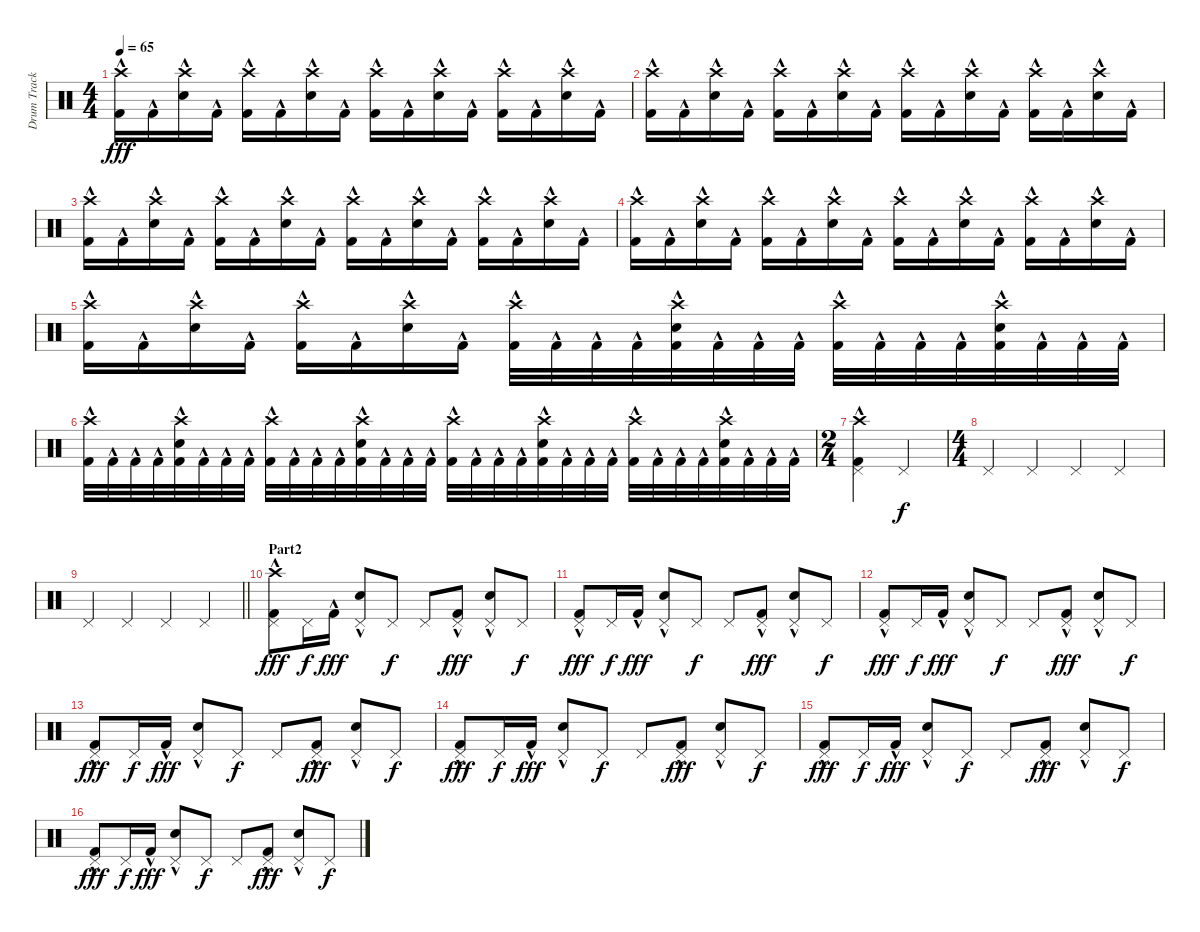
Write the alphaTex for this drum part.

\track ("Drum Track" "Drum Track") {instrument percussion}
\staff {score}
\articulation defaults
\ts (4 4)
\tempo 65
\clef neutral
\ks c
("Crash high (hit)" "Kick (hit) 2"{hac}).16{dy fff} "Kick (hit) 2"{hac}.16 ("Crash high (hit)" "Electric Snare (hit)"{hac}).16 "Kick (hit) 2"{hac}.16 ("Crash high (hit)" "Kick (hit) 2"{hac}).16 "Kick (hit) 2"{hac}.16 ("Crash high (hit)" "Electric Snare (hit)"{hac}).16 "Kick (hit) 2"{hac}.16 ("Crash high (hit)" "Kick (hit) 2"{hac}).16 "Kick (hit) 2"{hac}.16 ("Crash high (hit)" "Electric Snare (hit)"{hac}).16 "Kick (hit) 2"{hac}.16 ("Crash high (hit)" "Kick (hit) 2"{hac}).16 "Kick (hit) 2"{hac}.16 ("Crash high (hit)" "Electric Snare (hit)"{hac}).16 "Kick (hit) 2"{hac}.16 |
("Crash high (hit)" "Kick (hit) 2"{hac}).16 "Kick (hit) 2"{hac}.16 ("Crash high (hit)" "Electric Snare (hit)"{hac}).16 "Kick (hit) 2"{hac}.16 ("Crash high (hit)" "Kick (hit) 2"{hac}).16 "Kick (hit) 2"{hac}.16 ("Crash high (hit)" "Electric Snare (hit)"{hac}).16 "Kick (hit) 2"{hac}.16 ("Crash high (hit)" "Kick (hit) 2"{hac}).16 "Kick (hit) 2"{hac}.16 ("Crash high (hit)" "Electric Snare (hit)"{hac}).16 "Kick (hit) 2"{hac}.16 ("Crash high (hit)" "Kick (hit) 2"{hac}).16 "Kick (hit) 2"{hac}.16 ("Crash high (hit)" "Electric Snare (hit)"{hac}).16 "Kick (hit) 2"{hac}.16 |
("Crash high (hit)" "Kick (hit) 2"{hac}).16 "Kick (hit) 2"{hac}.16 ("Crash high (hit)" "Electric Snare (hit)"{hac}).16 "Kick (hit) 2"{hac}.16 ("Crash high (hit)" "Kick (hit) 2"{hac}).16 "Kick (hit) 2"{hac}.16 ("Crash high (hit)" "Electric Snare (hit)"{hac}).16 "Kick (hit) 2"{hac}.16 ("Crash high (hit)" "Kick (hit) 2"{hac}).16 "Kick (hit) 2"{hac}.16 ("Crash high (hit)" "Electric Snare (hit)"{hac}).16 "Kick (hit) 2"{hac}.16 ("Crash high (hit)" "Kick (hit) 2"{hac}).16 "Kick (hit) 2"{hac}.16 ("Crash high (hit)" "Electric Snare (hit)"{hac}).16 "Kick (hit) 2"{hac}.16 |
("Crash high (hit)" "Kick (hit) 2"{hac}).16 "Kick (hit) 2"{hac}.16 ("Crash high (hit)" "Electric Snare (hit)"{hac}).16 "Kick (hit) 2"{hac}.16 ("Crash high (hit)" "Kick (hit) 2"{hac}).16 "Kick (hit) 2"{hac}.16 ("Crash high (hit)" "Electric Snare (hit)"{hac}).16 "Kick (hit) 2"{hac}.16 ("Crash high (hit)" "Kick (hit) 2"{hac}).16 "Kick (hit) 2"{hac}.16 ("Crash high (hit)" "Electric Snare (hit)"{hac}).16 "Kick (hit) 2"{hac}.16 ("Crash high (hit)" "Kick (hit) 2"{hac}).16 "Kick (hit) 2"{hac}.16 ("Crash high (hit)" "Electric Snare (hit)"{hac}).16 "Kick (hit) 2"{hac}.16 |
("Crash high (hit)" "Kick (hit) 2"{hac}).16 "Kick (hit) 2"{hac}.16 ("Crash high (hit)" "Electric Snare (hit)"{hac}).16 "Kick (hit) 2"{hac}.16 ("Crash high (hit)" "Kick (hit) 2"{hac}).16 "Kick (hit) 2"{hac}.16 ("Crash high (hit)" "Electric Snare (hit)"{hac}).16 "Kick (hit) 2"{hac}.16 ("Crash high (hit)" "Kick (hit) 2"{hac}).32 "Kick (hit) 2"{hac}.32 "Kick (hit) 2"{hac}.32 "Kick (hit) 2"{hac}.32 ("Crash high (hit)" "Electric Snare (hit)"{hac} "Kick (hit) 2"{hac}).32 "Kick (hit) 2"{hac}.32 "Kick (hit) 2"{hac}.32 "Kick (hit) 2"{hac}.32 ("Crash high (hit)" "Kick (hit) 2"{hac}).32 "Kick (hit) 2"{hac}.32 "Kick (hit) 2"{hac}.32 "Kick (hit) 2"{hac}.32 ("Crash high (hit)" "Electric Snare (hit)"{hac} "Kick (hit) 2"{hac}).32 "Kick (hit) 2"{hac}.32 "Kick (hit) 2"{hac}.32 "Kick (hit) 2"{hac}.32 |
("Crash high (hit)" "Kick (hit) 2"{hac}).32 "Kick (hit) 2"{hac}.32 "Kick (hit) 2"{hac}.32 "Kick (hit) 2"{hac}.32 ("Crash high (hit)" "Electric Snare (hit)"{hac} "Kick (hit) 2"{hac}).32 "Kick (hit) 2"{hac}.32 "Kick (hit) 2"{hac}.32 "Kick (hit) 2"{hac}.32 ("Crash high (hit)" "Kick (hit) 2"{hac}).32 "Kick (hit) 2"{hac}.32 "Kick (hit) 2"{hac}.32 "Kick (hit) 2"{hac}.32 ("Crash high (hit)" "Electric Snare (hit)"{hac} "Kick (hit) 2"{hac}).32 "Kick (hit) 2"{hac}.32 "Kick (hit) 2"{hac}.32 "Kick (hit) 2"{hac}.32 ("Crash high (hit)" "Kick (hit) 2"{hac}).32 "Kick (hit) 2"{hac}.32 "Kick (hit) 2"{hac}.32 "Kick (hit) 2"{hac}.32 ("Crash high (hit)" "Electric Snare (hit)"{hac} "Kick (hit) 2"{hac}).32 "Kick (hit) 2"{hac}.32 "Kick (hit) 2"{hac}.32 "Kick (hit) 2"{hac}.32 ("Crash high (hit)" "Kick (hit) 2"{hac}).32 "Kick (hit) 2"{hac}.32 "Kick (hit) 2"{hac}.32 "Kick (hit) 2"{hac}.32 ("Crash high (hit)" "Electric Snare (hit)"{hac} "Kick (hit) 2"{hac}).32 "Kick (hit) 2"{hac}.32 "Kick (hit) 2"{hac}.32 "Kick (hit) 2"{hac}.32 |
\ts (2 4)
("Crash high (hit)" "Pedal Hi-Hat (hit)" "Kick (hit) 2"{hac}).4 "Pedal Hi-Hat (hit)".4{dy f} |
\ts (4 4)
"Pedal Hi-Hat (hit)".4 "Pedal Hi-Hat (hit)".4 "Pedal Hi-Hat (hit)".4 "Pedal Hi-Hat (hit)".4 |
\barLineRight lightlight "Pedal Hi-Hat (hit)".4 "Pedal Hi-Hat (hit)".4 "Pedal Hi-Hat (hit)".4 "Pedal Hi-Hat (hit)".4
|
\section ("" "Part2")
("Crash high (hit)" "Pedal Hi-Hat (hit)" "Kick (hit) 2"{hac}).8{dy fff} "Pedal Hi-Hat (hit)".16{dy f} "Kick (hit) 2"{hac}.16{dy fff} ("Pedal Hi-Hat (hit)" "Electric Snare (hit)"{hac}).8 "Pedal Hi-Hat (hit)".8{dy f} "Pedal Hi-Hat (hit)".8 ("Pedal Hi-Hat (hit)" "Kick (hit) 2"{hac}).8{dy fff} ("Pedal Hi-Hat (hit)" "Electric Snare (hit)"{hac}).8 "Pedal Hi-Hat (hit)".8{dy f} |
("Pedal Hi-Hat (hit)" "Kick (hit) 2"{hac}).8{dy fff} "Pedal Hi-Hat (hit)".16{dy f} "Kick (hit) 2"{hac}.16{dy fff} ("Pedal Hi-Hat (hit)" "Electric Snare (hit)"{hac}).8 "Pedal Hi-Hat (hit)".8{dy f} "Pedal Hi-Hat (hit)".8 ("Pedal Hi-Hat (hit)" "Kick (hit) 2"{hac}).8{dy fff} ("Pedal Hi-Hat (hit)" "Electric Snare (hit)"{hac}).8 "Pedal Hi-Hat (hit)".8{dy f} |
("Pedal Hi-Hat (hit)" "Kick (hit) 2"{hac}).8{dy fff} "Pedal Hi-Hat (hit)".16{dy f} "Kick (hit) 2"{hac}.16{dy fff} ("Pedal Hi-Hat (hit)" "Electric Snare (hit)"{hac}).8 "Pedal Hi-Hat (hit)".8{dy f} "Pedal Hi-Hat (hit)".8 ("Pedal Hi-Hat (hit)" "Kick (hit) 2"{hac}).8{dy fff} ("Pedal Hi-Hat (hit)" "Electric Snare (hit)"{hac}).8 "Pedal Hi-Hat (hit)".8{dy f} |
("Pedal Hi-Hat (hit)" "Kick (hit) 2"{hac}).8{dy fff} "Pedal Hi-Hat (hit)".16{dy f} "Kick (hit) 2"{hac}.16{dy fff} ("Pedal Hi-Hat (hit)" "Electric Snare (hit)"{hac}).8 "Pedal Hi-Hat (hit)".8{dy f} "Pedal Hi-Hat (hit)".8 ("Pedal Hi-Hat (hit)" "Kick (hit) 2"{hac}).8{dy fff} ("Pedal Hi-Hat (hit)" "Electric Snare (hit)"{hac}).8 "Pedal Hi-Hat (hit)".8{dy f} |
("Pedal Hi-Hat (hit)" "Kick (hit) 2"{hac}).8{dy fff} "Pedal Hi-Hat (hit)".16{dy f} "Kick (hit) 2"{hac}.16{dy fff} ("Pedal Hi-Hat (hit)" "Electric Snare (hit)"{hac}).8 "Pedal Hi-Hat (hit)".8{dy f} "Pedal Hi-Hat (hit)".8 ("Pedal Hi-Hat (hit)" "Kick (hit) 2"{hac}).8{dy fff} ("Pedal Hi-Hat (hit)" "Electric Snare (hit)"{hac}).8 "Pedal Hi-Hat (hit)".8{dy f} |
("Pedal Hi-Hat (hit)" "Kick (hit) 2"{hac}).8{dy fff} "Pedal Hi-Hat (hit)".16{dy f} "Kick (hit) 2"{hac}.16{dy fff} ("Pedal Hi-Hat (hit)" "Electric Snare (hit)"{hac}).8 "Pedal Hi-Hat (hit)".8{dy f} "Pedal Hi-Hat (hit)".8 ("Pedal Hi-Hat (hit)" "Kick (hit) 2"{hac}).8{dy fff} ("Pedal Hi-Hat (hit)" "Electric Snare (hit)"{hac}).8 "Pedal Hi-Hat (hit)".8{dy f} |
("Pedal Hi-Hat (hit)" "Kick (hit) 2"{hac}).8{dy fff} "Pedal Hi-Hat (hit)".16{dy f} "Kick (hit) 2"{hac}.16{dy fff} ("Pedal Hi-Hat (hit)" "Electric Snare (hit)"{hac}).8 "Pedal Hi-Hat (hit)".8{dy f} "Pedal Hi-Hat (hit)".8 ("Pedal Hi-Hat (hit)" "Kick (hit) 2"{hac}).8{dy fff} ("Pedal Hi-Hat (hit)" "Electric Snare (hit)"{hac}).8 "Pedal Hi-Hat (hit)".8{dy f}
